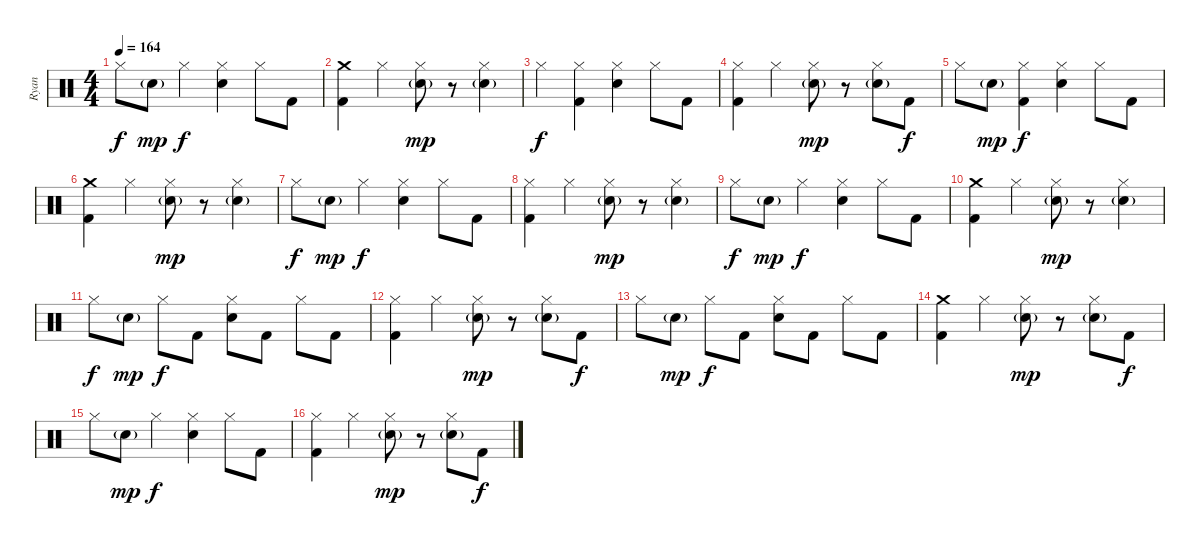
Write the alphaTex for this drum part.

\track ("Ryan" "Ryan") {instrument percussion}
\staff {score}
\articulation defaults
\ts (4 4)
\tempo 164
\clef neutral
\ks c "Hi-Hat (closed)".8{dy f} "Electric Snare (hit)"{g}.8{dy mp} "Hi-Hat (closed)".4{dy f}
("Hi-Hat (closed)" "Electric Snare (hit)").4 "Hi-Hat (closed)".8 "Kick (hit) 2".8 |
("Crash medium (hit)" "Kick (hit) 2").4 "Hi-Hat (closed)".4 ("Hi-Hat (closed)" "Electric Snare (hit)"{g}).8{dy mp} r.8 ("Hi-Hat (closed)" "Electric Snare (hit)"{g}).4 |
"Hi-Hat (closed)".4{dy f} ("Hi-Hat (closed)" "Kick (hit) 2").4 ("Hi-Hat (closed)" "Electric Snare (hit)").4 "Hi-Hat (closed)".8 "Kick (hit) 2".8 |
("Hi-Hat (closed)" "Kick (hit) 2").4 "Hi-Hat (closed)".4 ("Hi-Hat (closed)" "Electric Snare (hit)"{g}).8{dy mp} r.8 ("Hi-Hat (closed)" "Electric Snare (hit)"{g}).8 "Kick (hit) 2".8{dy f} |
"Hi-Hat (closed)".8 "Electric Snare (hit)"{g}.8{dy mp} ("Hi-Hat (closed)" "Kick (hit) 2").4{dy f} ("Hi-Hat (closed)" "Electric Snare (hit)").4 "Hi-Hat (closed)".8 "Kick (hit) 2".8 |
("Crash medium (hit)" "Kick (hit) 2").4 "Hi-Hat (closed)".4 ("Hi-Hat (closed)" "Electric Snare (hit)"{g}).8{dy mp} r.8 ("Hi-Hat (closed)" "Electric Snare (hit)"{g}).4 |
"Hi-Hat (closed)".8{dy f} "Electric Snare (hit)"{g}.8{dy mp} "Hi-Hat (closed)".4{dy f} ("Hi-Hat (closed)" "Electric Snare (hit)").4 "Hi-Hat (closed)".8 "Kick (hit) 2".8 |
("Hi-Hat (closed)" "Kick (hit) 2").4 "Hi-Hat (closed)".4 ("Hi-Hat (closed)" "Electric Snare (hit)"{g}).8{dy mp} r.8 ("Hi-Hat (closed)" "Electric Snare (hit)"{g}).4 |
"Hi-Hat (closed)".8{dy f} "Electric Snare (hit)"{g}.8{dy mp} "Hi-Hat (closed)".4{dy f} ("Hi-Hat (closed)" "Electric Snare (hit)").4 "Hi-Hat (closed)".8 "Kick (hit) 2".8 |
("Crash medium (hit)" "Kick (hit) 2").4 "Hi-Hat (closed)".4 ("Hi-Hat (closed)" "Electric Snare (hit)"{g}).8{dy mp} r.8 ("Hi-Hat (closed)" "Electric Snare (hit)"{g}).4 |
"Hi-Hat (closed)".8{dy f} "Electric Snare (hit)"{g}.8{dy mp} "Hi-Hat (closed)".8{dy f} "Kick (hit) 2".8 ("Hi-Hat (closed)" "Electric Snare (hit)").8 "Kick (hit) 2".8 "Hi-Hat (closed)".8 "Kick (hit) 2".8 |
("Hi-Hat (closed)" "Kick (hit) 2").4 "Hi-Hat (closed)".4 ("Hi-Hat (closed)" "Electric Snare (hit)"{g}).8{dy mp} r.8 ("Hi-Hat (closed)" "Electric Snare (hit)"{g}).8 "Kick (hit) 2".8{dy f} |
"Hi-Hat (closed)".8 "Electric Snare (hit)"{g}.8{dy mp} "Hi-Hat (closed)".8{dy f} "Kick (hit) 2".8 ("Hi-Hat (closed)" "Electric Snare (hit)").8 "Kick (hit) 2".8 "Hi-Hat (closed)".8 "Kick (hit) 2".8 |
("Crash medium (hit)" "Kick (hit) 2").4 "Hi-Hat (closed)".4 ("Hi-Hat (closed)" "Electric Snare (hit)"{g}).8{dy mp} r.8 ("Hi-Hat (closed)" "Electric Snare (hit)"{g}).8 "Kick (hit) 2".8{dy f} |
"Hi-Hat (closed)".8 "Electric Snare (hit)"{g}.8{dy mp} "Hi-Hat (closed)".4{dy f} ("Hi-Hat (closed)" "Electric Snare (hit)").4 "Hi-Hat (closed)".8 "Kick (hit) 2".8 |
("Hi-Hat (closed)" "Kick (hit) 2").4 "Hi-Hat (closed)".4 ("Hi-Hat (closed)" "Electric Snare (hit)"{g}).8{dy mp} r.8 ("Hi-Hat (closed)" "Electric Snare (hit)"{g}).8 "Kick (hit) 2".8{dy f}
